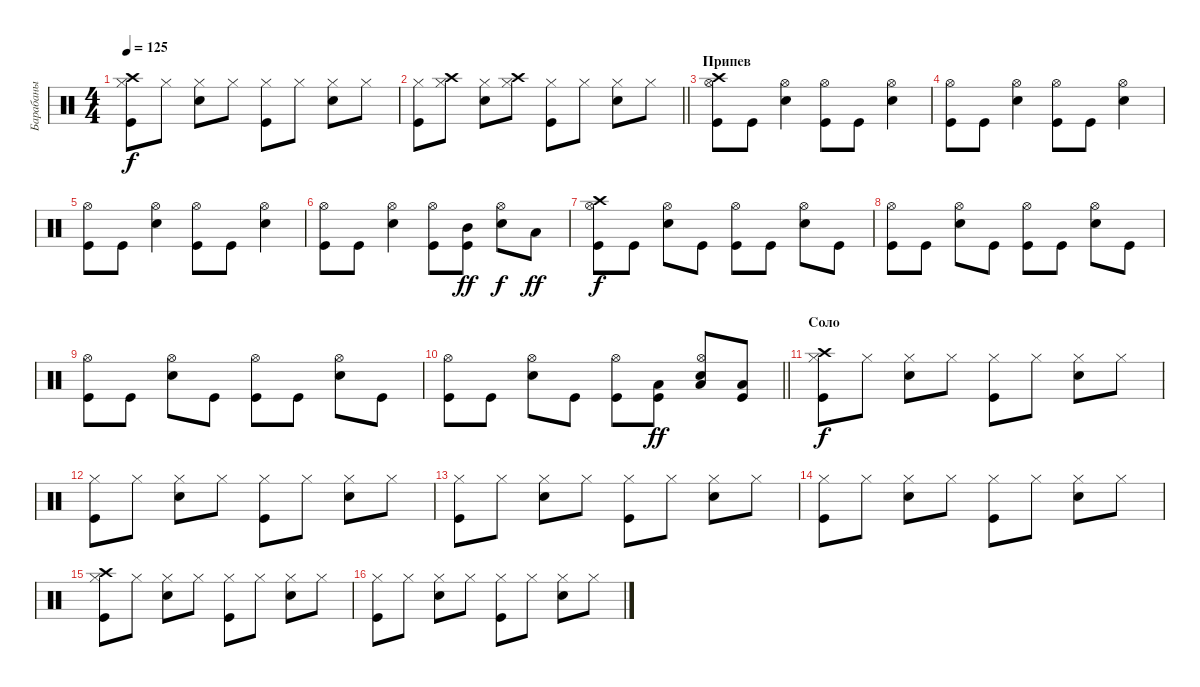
\track ("Барабаны" "Барабаны") {instrument percussion}
\staff {score}
\articulation defaults
\ts (4 4)
\tempo 125
\clef neutral
\ks c
("Kick (hit)" "Hi-Hat (closed)" "Crash high (hit)").8{dy f} "Hi-Hat (closed)".8 ("Snare (hit) 2" "Hi-Hat (closed)").8 "Hi-Hat (closed)".8 ("Kick (hit)" "Hi-Hat (closed)").8 "Hi-Hat (closed)".8 ("Snare (hit) 2" "Hi-Hat (closed)").8 "Hi-Hat (closed)".8 |
\barLineRight lightlight
("Kick (hit)" "Hi-Hat (closed)").8 ("Hi-Hat (closed)" "Crash high (hit)").8 ("Snare (hit) 2" "Hi-Hat (closed)").8 ("Hi-Hat (closed)" "Crash high (hit)").8 ("Kick (hit)" "Hi-Hat (closed)").8 "Hi-Hat (closed)".8 ("Snare (hit) 2" "Hi-Hat (closed)").8 "Hi-Hat (closed)".8 |
\section ("" "Припев")
("Kick (hit)" "Hi-Hat (open)" "Crash high (hit)").8 "Kick (hit)".8 ("Snare (hit) 2" "Hi-Hat (open)").4 ("Kick (hit)" "Hi-Hat (open)").8 "Kick (hit)".8 ("Snare (hit) 2" "Hi-Hat (open)").4 |
("Kick (hit)" "Hi-Hat (open)").8 "Kick (hit)".8 ("Snare (hit) 2" "Hi-Hat (open)").4 ("Kick (hit)" "Hi-Hat (open)").8 "Kick (hit)".8 ("Snare (hit) 2" "Hi-Hat (open)").4 |
("Kick (hit)" "Hi-Hat (open)").8 "Kick (hit)".8 ("Snare (hit) 2" "Hi-Hat (open)").4 ("Kick (hit)" "Hi-Hat (open)").8 "Kick (hit)".8 ("Snare (hit) 2" "Hi-Hat (open)").4 |
("Kick (hit)" "Hi-Hat (open)").8 "Kick (hit)".8 ("Snare (hit) 2" "Hi-Hat (open)").4 ("Kick (hit)" "Hi-Hat (open)").8 ("Kick (hit)" "Mid Tom (hit)").8{dy ff} ("Snare (hit) 2" "Hi-Hat (open)").8{dy f} "Low Tom (hit)".8{dy ff} |
("Kick (hit)" "Hi-Hat (open)" "Crash high (hit)").8{dy f} "Kick (hit)".8 ("Snare (hit) 2" "Hi-Hat (open)").8 "Kick (hit)".8 ("Kick (hit)" "Hi-Hat (open)").8 "Kick (hit)".8 ("Snare (hit) 2" "Hi-Hat (open)").8 "Kick (hit)".8 |
("Kick (hit)" "Hi-Hat (open)").8 "Kick (hit)".8 ("Snare (hit) 2" "Hi-Hat (open)").8 "Kick (hit)".8 ("Kick (hit)" "Hi-Hat (open)").8 "Kick (hit)".8 ("Snare (hit) 2" "Hi-Hat (open)").8 "Kick (hit)".8 |
("Kick (hit)" "Hi-Hat (open)").8 "Kick (hit)".8 ("Snare (hit) 2" "Hi-Hat (open)").8 "Kick (hit)".8 ("Kick (hit)" "Hi-Hat (open)").8 "Kick (hit)".8 ("Snare (hit) 2" "Hi-Hat (open)").8 "Kick (hit)".8 |
\barLineRight lightlight
("Kick (hit)" "Hi-Hat (open)").8 "Kick (hit)".8 ("Snare (hit) 2" "Hi-Hat (open)").8 "Kick (hit)".8 ("Kick (hit)" "Hi-Hat (open)").8 ("Kick (hit)" "Low Tom (hit)").8{dy ff} ("Snare (hit) 2" "Hi-Hat (open)" "Low Tom (hit)").8 ("Kick (hit)" "Low Tom (hit)").8 |
\section ("" "Соло")
("Kick (hit)" "Hi-Hat (closed)" "Crash high (hit)").8{dy f} "Hi-Hat (closed)".8 ("Snare (hit) 2" "Hi-Hat (closed)").8 "Hi-Hat (closed)".8 ("Kick (hit)" "Hi-Hat (closed)").8 "Hi-Hat (closed)".8 ("Snare (hit) 2" "Hi-Hat (closed)").8 "Hi-Hat (closed)".8 |
("Kick (hit)" "Hi-Hat (closed)").8 "Hi-Hat (closed)".8 ("Snare (hit) 2" "Hi-Hat (closed)").8 "Hi-Hat (closed)".8 ("Kick (hit)" "Hi-Hat (closed)").8 "Hi-Hat (closed)".8 ("Snare (hit) 2" "Hi-Hat (closed)").8 "Hi-Hat (closed)".8 |
("Kick (hit)" "Hi-Hat (closed)").8 "Hi-Hat (closed)".8 ("Snare (hit) 2" "Hi-Hat (closed)").8 "Hi-Hat (closed)".8 ("Kick (hit)" "Hi-Hat (closed)").8 "Hi-Hat (closed)".8 ("Snare (hit) 2" "Hi-Hat (closed)").8 "Hi-Hat (closed)".8 |
("Kick (hit)" "Hi-Hat (closed)").8 "Hi-Hat (closed)".8 ("Snare (hit) 2" "Hi-Hat (closed)").8 "Hi-Hat (closed)".8 ("Kick (hit)" "Hi-Hat (closed)").8 "Hi-Hat (closed)".8 ("Snare (hit) 2" "Hi-Hat (closed)").8 "Hi-Hat (closed)".8 |
("Kick (hit)" "Hi-Hat (closed)" "Crash high (hit)").8 "Hi-Hat (closed)".8 ("Snare (hit) 2" "Hi-Hat (closed)").8 "Hi-Hat (closed)".8 ("Kick (hit)" "Hi-Hat (closed)").8 "Hi-Hat (closed)".8 ("Snare (hit) 2" "Hi-Hat (closed)").8 "Hi-Hat (closed)".8 |
("Kick (hit)" "Hi-Hat (closed)").8 "Hi-Hat (closed)".8 ("Snare (hit) 2" "Hi-Hat (closed)").8 "Hi-Hat (closed)".8 ("Kick (hit)" "Hi-Hat (closed)").8 "Hi-Hat (closed)".8 ("Snare (hit) 2" "Hi-Hat (closed)").8 "Hi-Hat (closed)".8
